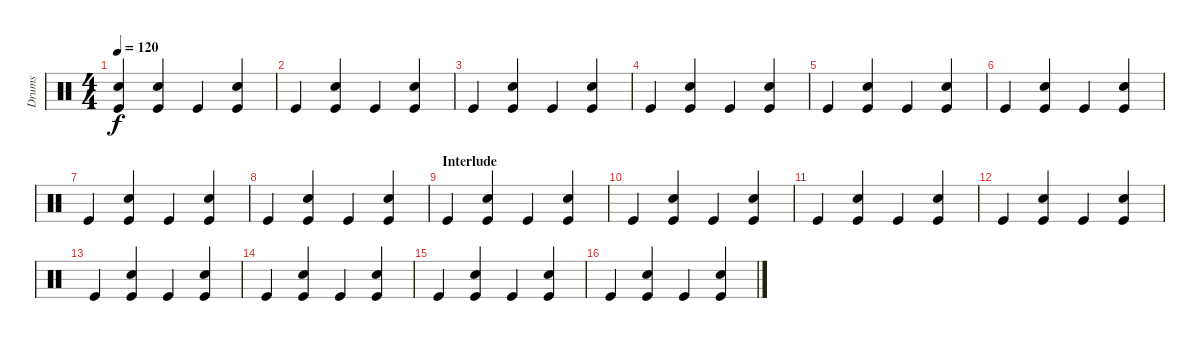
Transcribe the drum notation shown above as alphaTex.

\track ("Drums" "Drums") {instrument percussion}
\staff {score}
\articulation defaults
\ts (4 4)
\tempo 120
\clef neutral
\ks c
("Snare (hit) 2" "Kick (hit)").4{dy f} ("Snare (hit) 2" "Kick (hit)").4 "Kick (hit)".4 ("Snare (hit) 2" "Kick (hit)").4 |
"Kick (hit)".4 ("Snare (hit) 2" "Kick (hit)").4 "Kick (hit)".4 ("Snare (hit) 2" "Kick (hit)").4 |
"Kick (hit)".4 ("Snare (hit) 2" "Kick (hit)").4 "Kick (hit)".4 ("Snare (hit) 2" "Kick (hit)").4 |
"Kick (hit)".4 ("Snare (hit) 2" "Kick (hit)").4 "Kick (hit)".4 ("Snare (hit) 2" "Kick (hit)").4 |
"Kick (hit)".4 ("Snare (hit) 2" "Kick (hit)").4 "Kick (hit)".4 ("Snare (hit) 2" "Kick (hit)").4 |
"Kick (hit)".4 ("Snare (hit) 2" "Kick (hit)").4 "Kick (hit)".4 ("Snare (hit) 2" "Kick (hit)").4 |
"Kick (hit)".4 ("Snare (hit) 2" "Kick (hit)").4 "Kick (hit)".4 ("Snare (hit) 2" "Kick (hit)").4 |
"Kick (hit)".4 ("Snare (hit) 2" "Kick (hit)").4 "Kick (hit)".4 ("Snare (hit) 2" "Kick (hit)").4 |
\section ("" "Interlude")
"Kick (hit)".4 ("Snare (hit) 2" "Kick (hit)").4 "Kick (hit)".4 ("Snare (hit) 2" "Kick (hit)").4 |
"Kick (hit)".4 ("Snare (hit) 2" "Kick (hit)").4 "Kick (hit)".4 ("Snare (hit) 2" "Kick (hit)").4 |
"Kick (hit)".4 ("Snare (hit) 2" "Kick (hit)").4 "Kick (hit)".4 ("Snare (hit) 2" "Kick (hit)").4 |
"Kick (hit)".4 ("Snare (hit) 2" "Kick (hit)").4 "Kick (hit)".4 ("Snare (hit) 2" "Kick (hit)").4 |
"Kick (hit)".4 ("Snare (hit) 2" "Kick (hit)").4 "Kick (hit)".4 ("Snare (hit) 2" "Kick (hit)").4 |
"Kick (hit)".4 ("Snare (hit) 2" "Kick (hit)").4 "Kick (hit)".4 ("Snare (hit) 2" "Kick (hit)").4 |
"Kick (hit)".4 ("Snare (hit) 2" "Kick (hit)").4 "Kick (hit)".4 ("Snare (hit) 2" "Kick (hit)").4 |
"Kick (hit)".4 ("Snare (hit) 2" "Kick (hit)").4 "Kick (hit)".4 ("Snare (hit) 2" "Kick (hit)").4
